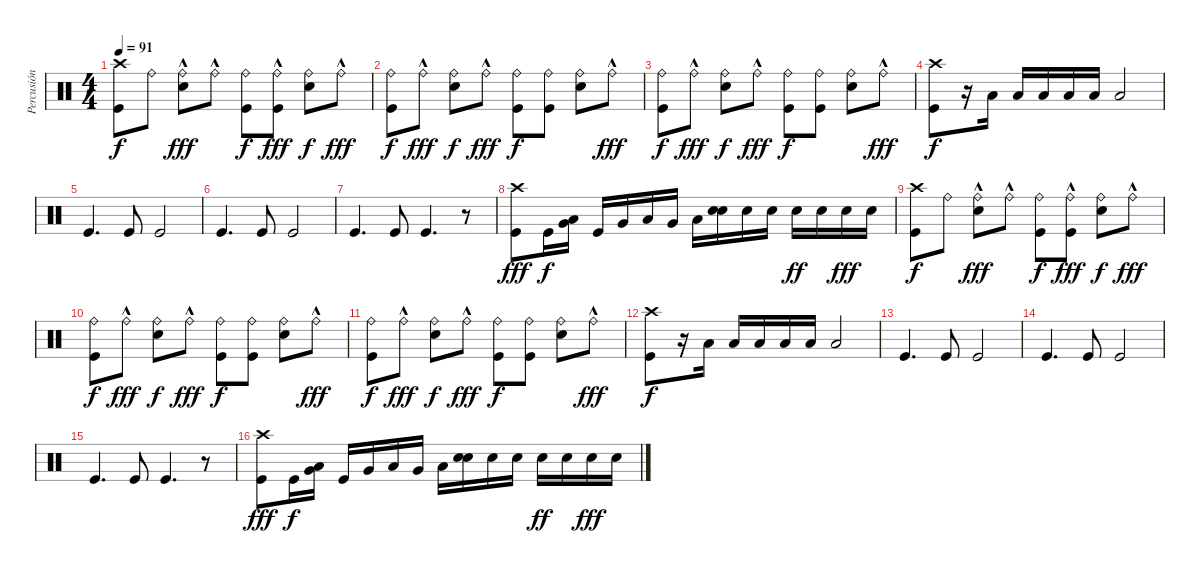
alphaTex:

\track ("Percusión" "Percusión") {instrument percussion}
\staff {score}
\articulation defaults
\ts (4 4)
\tempo 91
\clef neutral
\ks c
("Crash high (hit)" "Kick (hit)").8{dy f} "Ride (bell)".8 ("Ride (bell)"{hac} "Snare (hit) 2").8{dy fff} "Ride (bell)"{hac}.8 ("Ride (bell)" "Kick (hit)").8{dy f} ("Ride (bell)"{hac} "Kick (hit)").8{dy fff} ("Ride (bell)" "Snare (hit) 2").8{dy f} "Ride (bell)"{hac}.8{dy fff} |
("Ride (bell)" "Kick (hit)").8{dy f} "Ride (bell)"{hac}.8{dy fff} ("Ride (bell)" "Snare (hit) 2").8{dy f} "Ride (bell)"{hac}.8{dy fff} ("Ride (bell)" "Kick (hit)").8{dy f} ("Ride (bell)" "Kick (hit)").8 ("Ride (bell)" "Snare (hit) 2").8 "Ride (bell)"{hac}.8{dy fff} |
("Ride (bell)" "Kick (hit)").8{dy f} "Ride (bell)"{hac}.8{dy fff} ("Ride (bell)" "Snare (hit) 2").8{dy f} "Ride (bell)"{hac}.8{dy fff} ("Ride (bell)" "Kick (hit)").8{dy f} ("Ride (bell)" "Kick (hit)").8 ("Ride (bell)" "Snare (hit) 2").8 "Ride (bell)"{hac}.8{dy fff} |
("Kick (hit)" "Crash high (hit)").8{dy f} r.16 "Low Tom (hit)".16 "Low Tom (hit)".16 "Low Tom (hit)".16 "Low Tom (hit)".16 "Low Tom (hit)".16 "Low Tom (hit)".2 |
"Kick (hit)".4{d} "Kick (hit)".8 "Kick (hit)".2 |
"Kick (hit)".4{d} "Kick (hit)".8 "Kick (hit)".2 |
"Kick (hit)".4{d} "Kick (hit)".8 "Kick (hit)".4{d} r.8 |
("Kick (hit)" "Crash high (hit)").8{dy fff} "Kick (hit)".16{dy f} ("Low Tom (hit)" "Very Low Tom (hit)").16 "Kick (hit)".16 "Very Low Tom (hit)".16 "Low Tom (hit)".16 "Very Low Tom (hit)".16 "Low Tom (hit)".16 ("Snare (hit) 2" "Snare (hit) 2").16 "Snare (hit) 2".16 "Snare (hit) 2".16 "Snare (hit) 2".16{dy ff} "Snare (hit) 2".16 "Snare (hit) 2".16{dy fff} "Snare (hit) 2".16 |
("Crash high (hit)" "Kick (hit)").8{dy f} "Ride (bell)".8 ("Ride (bell)"{hac} "Snare (hit) 2").8{dy fff} "Ride (bell)"{hac}.8 ("Ride (bell)" "Kick (hit)").8{dy f} ("Ride (bell)"{hac} "Kick (hit)").8{dy fff} ("Ride (bell)" "Snare (hit) 2").8{dy f} "Ride (bell)"{hac}.8{dy fff} |
("Ride (bell)" "Kick (hit)").8{dy f} "Ride (bell)"{hac}.8{dy fff} ("Ride (bell)" "Snare (hit) 2").8{dy f} "Ride (bell)"{hac}.8{dy fff} ("Ride (bell)" "Kick (hit)").8{dy f} ("Ride (bell)" "Kick (hit)").8 ("Ride (bell)" "Snare (hit) 2").8 "Ride (bell)"{hac}.8{dy fff} |
("Ride (bell)" "Kick (hit)").8{dy f} "Ride (bell)"{hac}.8{dy fff} ("Ride (bell)" "Snare (hit) 2").8{dy f} "Ride (bell)"{hac}.8{dy fff} ("Ride (bell)" "Kick (hit)").8{dy f} ("Ride (bell)" "Kick (hit)").8 ("Ride (bell)" "Snare (hit) 2").8 "Ride (bell)"{hac}.8{dy fff} |
("Kick (hit)" "Crash high (hit)").8{dy f} r.16 "Low Tom (hit)".16 "Low Tom (hit)".16 "Low Tom (hit)".16 "Low Tom (hit)".16 "Low Tom (hit)".16 "Low Tom (hit)".2 |
"Kick (hit)".4{d} "Kick (hit)".8 "Kick (hit)".2 |
"Kick (hit)".4{d} "Kick (hit)".8 "Kick (hit)".2 |
"Kick (hit)".4{d} "Kick (hit)".8 "Kick (hit)".4{d} r.8 |
("Kick (hit)" "Crash high (hit)").8{dy fff} "Kick (hit)".16{dy f} ("Low Tom (hit)" "Very Low Tom (hit)").16 "Kick (hit)".16 "Very Low Tom (hit)".16 "Low Tom (hit)".16 "Very Low Tom (hit)".16 "Low Tom (hit)".16 ("Snare (hit) 2" "Snare (hit) 2").16 "Snare (hit) 2".16 "Snare (hit) 2".16 "Snare (hit) 2".16{dy ff} "Snare (hit) 2".16 "Snare (hit) 2".16{dy fff} "Snare (hit) 2".16
